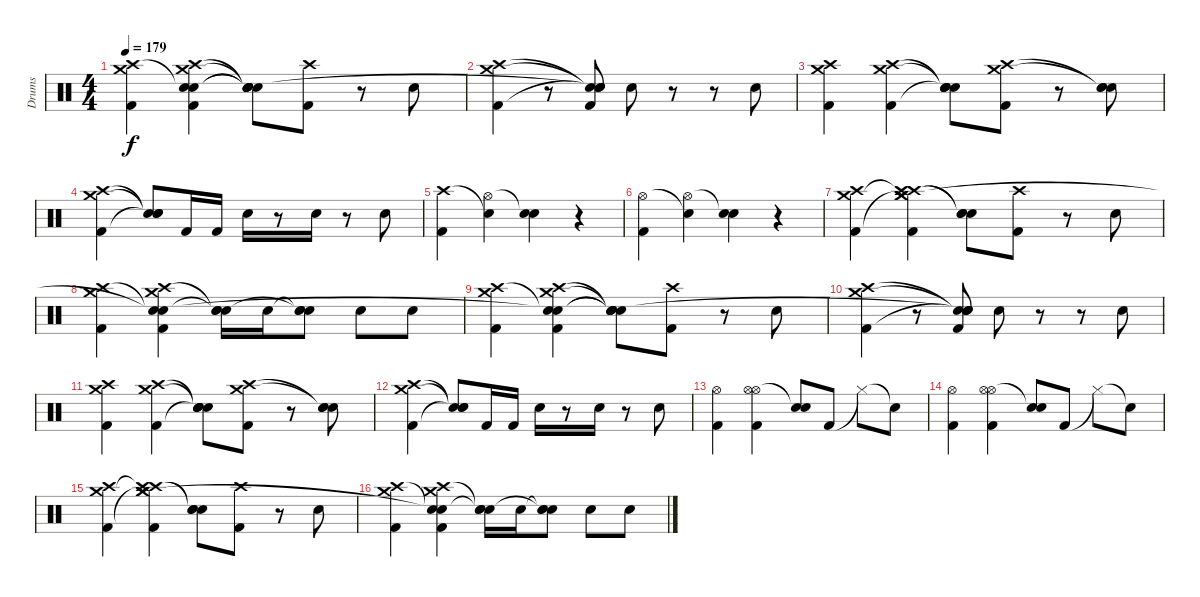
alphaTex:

\track ("Drums" "Drums") {instrument percussion}
\staff {score}
\articulation defaults
\ts (4 4)
\tempo 179
\clef neutral
\ks c
("Crash high (hit)" "Crash medium (hit)" "Kick (hit) 2").4{dy f} ("Snare (hit)"{t} "Crash high (hit)" "Crash medium (hit)" "Snare (hit)"{t} "Kick (hit) 2").4 ("Snare (hit)"{t} "Snare (hit)"{t} "Snare (hit)"{t} "Snare (hit)"{t} "Electric Snare (hit)").8 ("Crash high (hit)" "Kick (hit) 2").8 r.8 "Electric Snare (hit)".8 |
("Crash medium (hit)" "Crash high (hit)" "Kick (hit) 2").4 r.8 ("Snare (hit)"{t} "Snare (hit)"{t} "Snare (hit)"{t} "Snare (hit)"{t} "Kick (hit) 2").8 "Electric Snare (hit)".8 r.8 r.8 "Electric Snare (hit)".8 |
("Crash medium (hit)" "Crash high (hit)" "Kick (hit) 2").4 ("Crash medium (hit)" "Crash high (hit)" "Kick (hit) 2").4 ("Snare (hit)"{t} "Snare (hit)"{t} "Snare (hit)"{t} "Electric Snare (hit)").8 ("Crash medium (hit)" "Crash high (hit)" "Kick (hit) 2").8 r.8 ("Snare (hit)"{t} "Snare (hit)"{t} "Electric Snare (hit)").8 |
("Crash high (hit)" "Crash medium (hit)" "Kick (hit) 2").4 ("Snare (hit)"{t} "Snare (hit)"{t} "Snare (hit)"{t}).8 "Kick (hit) 2".16 "Kick (hit) 2".16 "Electric Snare (hit)".16 r.8 "Electric Snare (hit)".16 r.8 "Electric Snare (hit)".8 |
("Crash high (hit)" "Kick (hit) 2").4 ("Snare (hit)"{t} "Hi-Hat (open)").4 ("Electric Snare (hit)" "Snare (hit)"{t}).4 r.4 |
("Hi-Hat (open)" "Kick (hit) 2").4 ("Snare (hit)"{t} "Hi-Hat (open)").4 ("Electric Snare (hit)" "Snare (hit)"{t}).4 r.4 |
("Crash high (hit)" "Crash medium (hit)" "Kick (hit) 2").4 ("Crash high (hit)" "Crash high (hit)"{t} "Crash medium (hit)"{t} "Crash medium (hit)" "Kick (hit) 2").4 ("Snare (hit)"{t} "Snare (hit)"{t} "Electric Snare (hit)").8 ("Crash high (hit)" "Kick (hit) 2").8 r.8 "Electric Snare (hit)".8 |
("Crash high (hit)" "Crash medium (hit)" "Kick (hit) 2").4 ("Snare (hit)"{t} "Crash high (hit)" "Crash medium (hit)" "Snare (hit)"{t} "Kick (hit) 2").4 ("Snare (hit)"{t} "Snare (hit)"{t} "Electric Snare (hit)").16 "Electric Snare (hit)".16 ("Snare (hit)"{t} "Snare (hit)"{t} "Electric Snare (hit)").8 "Electric Snare (hit)".8 "Electric Snare (hit)".8 |
("Crash high (hit)" "Crash medium (hit)" "Kick (hit) 2").4 ("Snare (hit)"{t} "Crash high (hit)" "Crash medium (hit)" "Snare (hit)"{t} "Kick (hit) 2").4 ("Snare (hit)"{t} "Snare (hit)"{t} "Snare (hit)"{t} "Snare (hit)"{t} "Electric Snare (hit)").8 ("Crash high (hit)" "Kick (hit) 2").8 r.8 "Electric Snare (hit)".8 |
("Crash medium (hit)" "Crash high (hit)" "Kick (hit) 2").4 r.8 ("Snare (hit)"{t} "Snare (hit)"{t} "Snare (hit)"{t} "Snare (hit)"{t} "Kick (hit) 2").8 "Electric Snare (hit)".8 r.8 r.8 "Electric Snare (hit)".8 |
("Crash medium (hit)" "Crash high (hit)" "Kick (hit) 2").4 ("Crash medium (hit)" "Crash high (hit)" "Kick (hit) 2").4 ("Snare (hit)"{t} "Snare (hit)"{t} "Snare (hit)"{t} "Electric Snare (hit)").8 ("Crash medium (hit)" "Crash high (hit)" "Kick (hit) 2").8 r.8 ("Snare (hit)"{t} "Snare (hit)"{t} "Electric Snare (hit)").8 |
("Crash high (hit)" "Crash medium (hit)" "Kick (hit) 2").4 ("Snare (hit)"{t} "Snare (hit)"{t} "Snare (hit)"{t}).8 "Kick (hit) 2".16 "Kick (hit) 2".16 "Electric Snare (hit)".16 r.8 "Electric Snare (hit)".16 r.8 "Electric Snare (hit)".8 |
("Hi-Hat (open)" "Kick (hit) 2").4 ("Hi-Hat (open)" "Hi-Hat (open)" "Kick (hit) 2").4 ("Electric Snare (hit)" "Snare (hit)"{t}).8 "Kick (hit) 2".8 "Hi-Hat (closed)"{t}.8 "Snare (hit)"{t}.8 |
("Hi-Hat (open)" "Kick (hit) 2").4 ("Hi-Hat (open)" "Hi-Hat (open)" "Kick (hit) 2").4 ("Electric Snare (hit)" "Snare (hit)"{t}).8 "Kick (hit) 2".8 "Hi-Hat (closed)"{t}.8 "Snare (hit)"{t}.8 |
("Crash high (hit)" "Crash medium (hit)" "Kick (hit) 2").4 ("Crash high (hit)" "Crash high (hit)"{t} "Crash medium (hit)"{t} "Crash medium (hit)" "Kick (hit) 2").4 ("Snare (hit)"{t} "Snare (hit)"{t} "Electric Snare (hit)").8 ("Crash high (hit)" "Kick (hit) 2").8 r.8 "Electric Snare (hit)".8 |
("Crash high (hit)" "Crash medium (hit)" "Kick (hit) 2").4 ("Snare (hit)"{t} "Crash high (hit)" "Crash medium (hit)" "Snare (hit)"{t} "Kick (hit) 2").4 ("Snare (hit)"{t} "Snare (hit)"{t} "Electric Snare (hit)").16 "Electric Snare (hit)".16 ("Snare (hit)"{t} "Snare (hit)"{t} "Electric Snare (hit)").8 "Electric Snare (hit)".8 "Electric Snare (hit)".8
